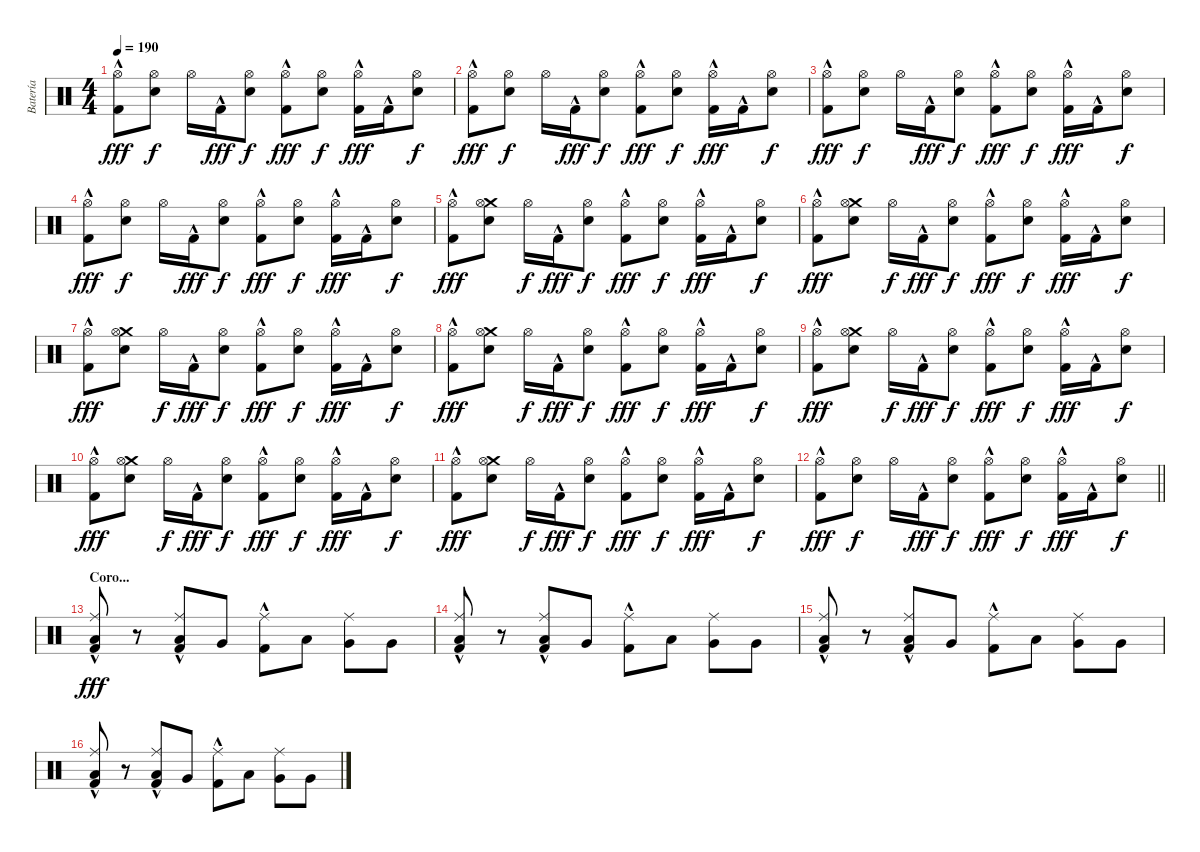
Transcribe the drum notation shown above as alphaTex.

\track ("Batería" "Batería") {instrument percussion}
\staff {score}
\articulation defaults
\ts (4 4)
\tempo 190
\clef neutral
\ks c
("Hi-Hat (open)" "Kick (hit) 2"{hac}).8{dy fff} ("Snare (hit) 2" "Hi-Hat (open)").8{dy f} "Hi-Hat (open)".16 "Kick (hit) 2"{hac}.16{dy fff} ("Snare (hit) 2" "Hi-Hat (open)").8{dy f} ("Hi-Hat (open)" "Kick (hit) 2"{hac}).8{dy fff} ("Snare (hit) 2" "Hi-Hat (open)").8{dy f} ("Hi-Hat (open)" "Kick (hit) 2"{hac}).16{dy fff} "Kick (hit) 2"{hac}.16 ("Snare (hit) 2" "Hi-Hat (open)").8{dy f} |
("Hi-Hat (open)" "Kick (hit) 2"{hac}).8{dy fff} ("Snare (hit) 2" "Hi-Hat (open)").8{dy f} "Hi-Hat (open)".16 "Kick (hit) 2"{hac}.16{dy fff} ("Snare (hit) 2" "Hi-Hat (open)").8{dy f} ("Hi-Hat (open)" "Kick (hit) 2"{hac}).8{dy fff} ("Snare (hit) 2" "Hi-Hat (open)").8{dy f} ("Hi-Hat (open)" "Kick (hit) 2"{hac}).16{dy fff} "Kick (hit) 2"{hac}.16 ("Snare (hit) 2" "Hi-Hat (open)").8{dy f} |
("Hi-Hat (open)" "Kick (hit) 2"{hac}).8{dy fff} ("Snare (hit) 2" "Hi-Hat (open)").8{dy f} "Hi-Hat (open)".16 "Kick (hit) 2"{hac}.16{dy fff} ("Snare (hit) 2" "Hi-Hat (open)").8{dy f} ("Hi-Hat (open)" "Kick (hit) 2"{hac}).8{dy fff} ("Snare (hit) 2" "Hi-Hat (open)").8{dy f} ("Hi-Hat (open)" "Kick (hit) 2"{hac}).16{dy fff} "Kick (hit) 2"{hac}.16 ("Snare (hit) 2" "Hi-Hat (open)").8{dy f} |
("Hi-Hat (open)" "Kick (hit) 2"{hac}).8{dy fff} ("Snare (hit) 2" "Hi-Hat (open)").8{dy f} "Hi-Hat (open)".16 "Kick (hit) 2"{hac}.16{dy fff} ("Snare (hit) 2" "Hi-Hat (open)").8{dy f} ("Hi-Hat (open)" "Kick (hit) 2"{hac}).8{dy fff} ("Snare (hit) 2" "Hi-Hat (open)").8{dy f} ("Hi-Hat (open)" "Kick (hit) 2"{hac}).16{dy fff} "Kick (hit) 2"{hac}.16 ("Snare (hit) 2" "Hi-Hat (open)").8{dy f} |
("Hi-Hat (open)" "Kick (hit) 2"{hac}).8{dy fff} ("Crash medium (hit)" "Snare (hit) 2" "Hi-Hat (open)").8 "Hi-Hat (open)".16{dy f} "Kick (hit) 2"{hac}.16{dy fff} ("Snare (hit) 2" "Hi-Hat (open)").8{dy f} ("Hi-Hat (open)" "Kick (hit) 2"{hac}).8{dy fff} ("Snare (hit) 2" "Hi-Hat (open)").8{dy f} ("Hi-Hat (open)" "Kick (hit) 2"{hac}).16{dy fff} "Kick (hit) 2"{hac}.16 ("Snare (hit) 2" "Hi-Hat (open)").8{dy f} |
("Hi-Hat (open)" "Kick (hit) 2"{hac}).8{dy fff} ("Crash medium (hit)" "Snare (hit) 2" "Hi-Hat (open)").8 "Hi-Hat (open)".16{dy f} "Kick (hit) 2"{hac}.16{dy fff} ("Snare (hit) 2" "Hi-Hat (open)").8{dy f} ("Hi-Hat (open)" "Kick (hit) 2"{hac}).8{dy fff} ("Snare (hit) 2" "Hi-Hat (open)").8{dy f} ("Hi-Hat (open)" "Kick (hit) 2"{hac}).16{dy fff} "Kick (hit) 2"{hac}.16 ("Snare (hit) 2" "Hi-Hat (open)").8{dy f} |
("Hi-Hat (open)" "Kick (hit) 2"{hac}).8{dy fff} ("Crash medium (hit)" "Snare (hit) 2" "Hi-Hat (open)").8 "Hi-Hat (open)".16{dy f} "Kick (hit) 2"{hac}.16{dy fff} ("Snare (hit) 2" "Hi-Hat (open)").8{dy f} ("Hi-Hat (open)" "Kick (hit) 2"{hac}).8{dy fff} ("Snare (hit) 2" "Hi-Hat (open)").8{dy f} ("Hi-Hat (open)" "Kick (hit) 2"{hac}).16{dy fff} "Kick (hit) 2"{hac}.16 ("Snare (hit) 2" "Hi-Hat (open)").8{dy f} |
("Hi-Hat (open)" "Kick (hit) 2"{hac}).8{dy fff} ("Crash medium (hit)" "Snare (hit) 2" "Hi-Hat (open)").8 "Hi-Hat (open)".16{dy f} "Kick (hit) 2"{hac}.16{dy fff} ("Snare (hit) 2" "Hi-Hat (open)").8{dy f} ("Hi-Hat (open)" "Kick (hit) 2"{hac}).8{dy fff} ("Snare (hit) 2" "Hi-Hat (open)").8{dy f} ("Hi-Hat (open)" "Kick (hit) 2"{hac}).16{dy fff} "Kick (hit) 2"{hac}.16 ("Snare (hit) 2" "Hi-Hat (open)").8{dy f} |
("Hi-Hat (open)" "Kick (hit) 2"{hac}).8{dy fff} ("Crash medium (hit)" "Snare (hit) 2" "Hi-Hat (open)").8 "Hi-Hat (open)".16{dy f} "Kick (hit) 2"{hac}.16{dy fff} ("Snare (hit) 2" "Hi-Hat (open)").8{dy f} ("Hi-Hat (open)" "Kick (hit) 2"{hac}).8{dy fff} ("Snare (hit) 2" "Hi-Hat (open)").8{dy f} ("Hi-Hat (open)" "Kick (hit) 2"{hac}).16{dy fff} "Kick (hit) 2"{hac}.16 ("Snare (hit) 2" "Hi-Hat (open)").8{dy f} |
("Hi-Hat (open)" "Kick (hit) 2"{hac}).8{dy fff} ("Crash medium (hit)" "Snare (hit) 2" "Hi-Hat (open)").8 "Hi-Hat (open)".16{dy f} "Kick (hit) 2"{hac}.16{dy fff} ("Snare (hit) 2" "Hi-Hat (open)").8{dy f} ("Hi-Hat (open)" "Kick (hit) 2"{hac}).8{dy fff} ("Snare (hit) 2" "Hi-Hat (open)").8{dy f} ("Hi-Hat (open)" "Kick (hit) 2"{hac}).16{dy fff} "Kick (hit) 2"{hac}.16 ("Snare (hit) 2" "Hi-Hat (open)").8{dy f} |
("Hi-Hat (open)" "Kick (hit) 2"{hac}).8{dy fff} ("Crash medium (hit)" "Snare (hit) 2" "Hi-Hat (open)").8 "Hi-Hat (open)".16{dy f} "Kick (hit) 2"{hac}.16{dy fff} ("Snare (hit) 2" "Hi-Hat (open)").8{dy f} ("Hi-Hat (open)" "Kick (hit) 2"{hac}).8{dy fff} ("Snare (hit) 2" "Hi-Hat (open)").8{dy f} ("Hi-Hat (open)" "Kick (hit) 2"{hac}).16{dy fff} "Kick (hit) 2"{hac}.16 ("Snare (hit) 2" "Hi-Hat (open)").8{dy f} |
\barLineRight lightlight
("Hi-Hat (open)" "Kick (hit) 2"{hac}).8{dy fff} ("Snare (hit) 2" "Hi-Hat (open)").8{dy f} "Hi-Hat (open)".16 "Kick (hit) 2"{hac}.16{dy fff} ("Snare (hit) 2" "Hi-Hat (open)").8{dy f} ("Hi-Hat (open)" "Kick (hit) 2"{hac}).8{dy fff} ("Snare (hit) 2" "Hi-Hat (open)").8{dy f} ("Hi-Hat (open)" "Kick (hit) 2"{hac}).16{dy fff} "Kick (hit) 2"{hac}.16 ("Snare (hit) 2" "Hi-Hat (open)").8{dy f} |
\section ("" "Coro...")
("Ride (middle)" "Low Floor Tom (hit)" "Kick (hit) 2"{hac}).8{dy fff} r.8 ("Ride (middle)" "Low Floor Tom (hit)" "Kick (hit) 2"{hac}).8 "Very Low Tom (hit)".8 ("Ride (middle)" "Kick (hit) 2"{hac}).8 "Low Floor Tom (hit)".8 ("Ride (middle)" "Very Low Tom (hit)").8 "Very Low Tom (hit)".8 |
("Ride (middle)" "Low Floor Tom (hit)" "Kick (hit) 2"{hac}).8 r.8 ("Ride (middle)" "Low Floor Tom (hit)" "Kick (hit) 2"{hac}).8 "Very Low Tom (hit)".8 ("Ride (middle)" "Kick (hit) 2"{hac}).8 "Low Floor Tom (hit)".8 ("Ride (middle)" "Very Low Tom (hit)").8 "Very Low Tom (hit)".8 |
("Ride (middle)" "Low Floor Tom (hit)" "Kick (hit) 2"{hac}).8 r.8 ("Ride (middle)" "Low Floor Tom (hit)" "Kick (hit) 2"{hac}).8 "Very Low Tom (hit)".8 ("Ride (middle)" "Kick (hit) 2"{hac}).8 "Low Floor Tom (hit)".8 ("Ride (middle)" "Very Low Tom (hit)").8 "Very Low Tom (hit)".8 |
("Ride (middle)" "Low Floor Tom (hit)" "Kick (hit) 2"{hac}).8 r.8 ("Ride (middle)" "Low Floor Tom (hit)" "Kick (hit) 2"{hac}).8 "Very Low Tom (hit)".8 ("Ride (middle)" "Kick (hit) 2"{hac}).8 "Low Floor Tom (hit)".8 ("Ride (middle)" "Very Low Tom (hit)").8 "Very Low Tom (hit)".8
